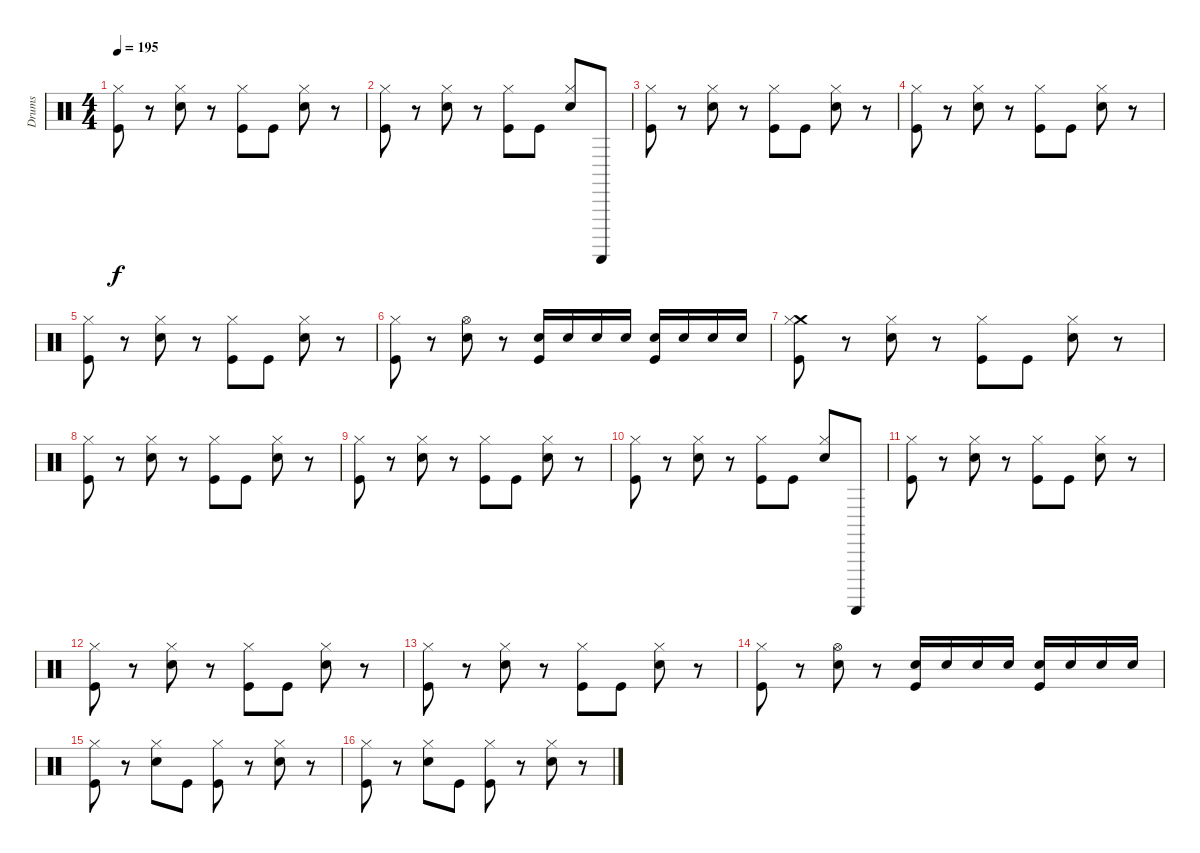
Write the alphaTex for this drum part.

\track ("Drums" "Drums") {instrument percussion}
\staff {score}
\articulation defaults
\ts (4 4)
\tempo 195
\clef neutral
\ks c
("Hi-Hat (closed)" "Kick (hit)").8{dy f} r.8 ("Hi-Hat (closed)" "Electric Snare (hit)").8 r.8 ("Hi-Hat (closed)" "Kick (hit)").8 "Kick (hit)".8 ("Hi-Hat (closed)" "Electric Snare (hit)").8 r.8 |
("Hi-Hat (closed)" "Kick (hit)").8 r.8 ("Hi-Hat (closed)" "Electric Snare (hit)").8 r.8 ("Hi-Hat (closed)" "Kick (hit)").8 "Kick (hit)".8 ("Hi-Hat (closed)" "Electric Snare (hit)").8 "Guiro (scrap-return)".8 |
("Hi-Hat (closed)" "Kick (hit)").8 r.8 ("Hi-Hat (closed)" "Electric Snare (hit)").8 r.8 ("Hi-Hat (closed)" "Kick (hit)").8 "Kick (hit)".8 ("Hi-Hat (closed)" "Electric Snare (hit)").8 r.8 |
("Hi-Hat (closed)" "Kick (hit)").8 r.8 ("Hi-Hat (closed)" "Electric Snare (hit)").8 r.8 ("Kick (hit)" "Hi-Hat (closed)").8 "Kick (hit)".8 ("Hi-Hat (closed)" "Electric Snare (hit)").8 r.8 |
("Kick (hit)" "Hi-Hat (closed)").8 r.8 ("Hi-Hat (closed)" "Electric Snare (hit)").8 r.8 ("Hi-Hat (closed)" "Kick (hit)").8 "Kick (hit)".8 ("Hi-Hat (closed)" "Electric Snare (hit)").8 r.8 |
("Hi-Hat (closed)" "Kick (hit)").8 r.8 ("Hi-Hat (open)" "Electric Snare (hit)").8 r.8 ("Kick (hit)" "Electric Snare (hit)").16 "Electric Snare (hit)".16 "Electric Snare (hit)".16 "Electric Snare (hit)".16 ("Kick (hit)" "Electric Snare (hit)").16 "Electric Snare (hit)".16 "Electric Snare (hit)".16 "Electric Snare (hit)".16 |
("Crash medium (hit)" "Kick (hit)" "Hi-Hat (closed)").8 r.8 ("Electric Snare (hit)" "Hi-Hat (closed)").8 r.8 ("Hi-Hat (closed)" "Kick (hit)").8 "Kick (hit)".8 ("Electric Snare (hit)" "Hi-Hat (closed)").8 r.8 |
("Hi-Hat (closed)" "Kick (hit)").8 r.8 ("Hi-Hat (closed)" "Electric Snare (hit)").8 r.8 ("Kick (hit)" "Hi-Hat (closed)").8 "Kick (hit)".8 ("Hi-Hat (closed)" "Electric Snare (hit)").8 r.8 |
("Kick (hit)" "Hi-Hat (closed)").8 r.8 ("Hi-Hat (closed)" "Electric Snare (hit)").8 r.8 ("Hi-Hat (closed)" "Kick (hit)").8 "Kick (hit)".8 ("Hi-Hat (closed)" "Electric Snare (hit)").8 r.8 |
("Kick (hit)" "Hi-Hat (closed)").8 r.8 ("Hi-Hat (closed)" "Electric Snare (hit)").8 r.8 ("Hi-Hat (closed)" "Kick (hit)").8 "Kick (hit)".8 ("Electric Snare (hit)" "Hi-Hat (closed)").8 "Guiro (scrap-return)".8 |
("Kick (hit)" "Hi-Hat (closed)").8 r.8 ("Hi-Hat (closed)" "Electric Snare (hit)").8 r.8 ("Hi-Hat (closed)" "Kick (hit)").8 "Kick (hit)".8 ("Hi-Hat (closed)" "Electric Snare (hit)").8 r.8 |
("Hi-Hat (closed)" "Kick (hit)").8 r.8 ("Hi-Hat (closed)" "Electric Snare (hit)").8 r.8 ("Kick (hit)" "Hi-Hat (closed)").8 "Kick (hit)".8 ("Electric Snare (hit)" "Hi-Hat (closed)").8 r.8 |
("Hi-Hat (closed)" "Kick (hit)").8 r.8 ("Hi-Hat (closed)" "Electric Snare (hit)").8 r.8 ("Hi-Hat (closed)" "Kick (hit)").8 "Kick (hit)".8 ("Hi-Hat (closed)" "Electric Snare (hit)").8 r.8 |
("Kick (hit)" "Hi-Hat (closed)").8 r.8 ("Hi-Hat (open)" "Electric Snare (hit)").8 r.8 ("Electric Snare (hit)" "Kick (hit)").16 "Electric Snare (hit)".16 "Electric Snare (hit)".16 "Electric Snare (hit)".16 ("Kick (hit)" "Electric Snare (hit)").16 "Electric Snare (hit)".16 "Electric Snare (hit)".16 "Electric Snare (hit)".16 |
("Kick (hit)" "Hi-Hat (closed)").8 r.8 ("Hi-Hat (closed)" "Electric Snare (hit)").8 "Kick (hit)".8 ("Hi-Hat (closed)" "Kick (hit)").8 r.8 ("Electric Snare (hit)" "Hi-Hat (closed)").8 r.8 |
("Kick (hit)" "Hi-Hat (closed)").8 r.8 ("Hi-Hat (closed)" "Electric Snare (hit)").8 "Kick (hit)".8 ("Hi-Hat (closed)" "Kick (hit)").8 r.8 ("Hi-Hat (closed)" "Electric Snare (hit)").8 r.8
